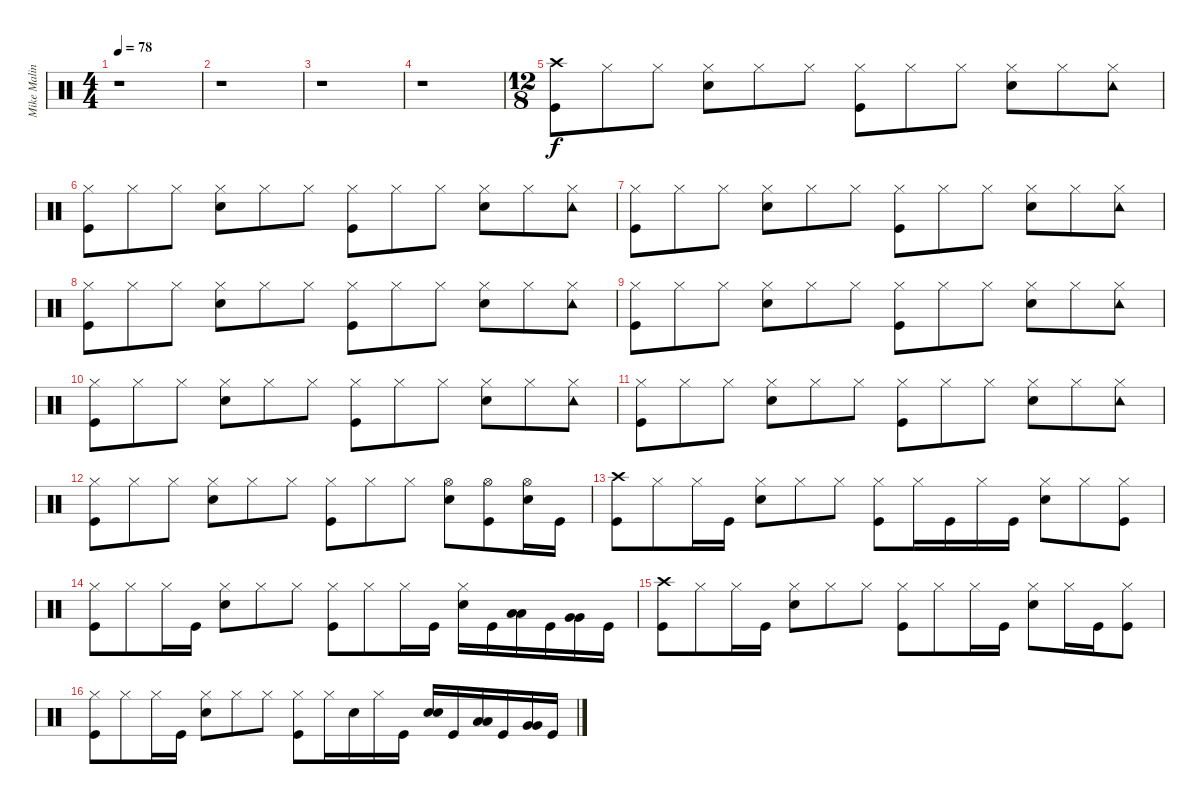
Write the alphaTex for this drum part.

\track ("Mike Malinin (Drums)" "Mike Malin") {instrument percussion}
\staff {score}
\articulation defaults
\ts (4 4)
\tempo 78
\clef neutral
\ks c
r.1{dy f} |
r.1 |
r.1 |
r.1 |
\ts (12 8)
("Crash high (hit)" "Kick (hit)").8 "Hi-Hat (closed)".8 "Hi-Hat (closed)".8 ("Hi-Hat (closed)" "Snare (hit) 2").8 "Hi-Hat (closed)".8 "Hi-Hat (closed)".8 ("Hi-Hat (closed)" "Kick (hit)").8 "Hi-Hat (closed)".8 "Hi-Hat (closed)".8 ("Hi-Hat (closed)" "Snare (hit) 2").8 "Hi-Hat (closed)".8 ("Tambourine (hit)" "Hi-Hat (closed)").8 |
("Hi-Hat (closed)" "Kick (hit)").8 "Hi-Hat (closed)".8 "Hi-Hat (closed)".8 ("Hi-Hat (closed)" "Snare (hit) 2").8 "Hi-Hat (closed)".8 "Hi-Hat (closed)".8 ("Hi-Hat (closed)" "Kick (hit)").8 "Hi-Hat (closed)".8 "Hi-Hat (closed)".8 ("Hi-Hat (closed)" "Snare (hit) 2").8 "Hi-Hat (closed)".8 ("Tambourine (hit)" "Hi-Hat (closed)").8 |
("Hi-Hat (closed)" "Kick (hit)").8 "Hi-Hat (closed)".8 "Hi-Hat (closed)".8 ("Hi-Hat (closed)" "Snare (hit) 2").8 "Hi-Hat (closed)".8 "Hi-Hat (closed)".8 ("Hi-Hat (closed)" "Kick (hit)").8 "Hi-Hat (closed)".8 "Hi-Hat (closed)".8 ("Hi-Hat (closed)" "Snare (hit) 2").8 "Hi-Hat (closed)".8 ("Tambourine (hit)" "Hi-Hat (closed)").8 |
("Hi-Hat (closed)" "Kick (hit)").8 "Hi-Hat (closed)".8 "Hi-Hat (closed)".8 ("Hi-Hat (closed)" "Snare (hit) 2").8 "Hi-Hat (closed)".8 "Hi-Hat (closed)".8 ("Hi-Hat (closed)" "Kick (hit)").8 "Hi-Hat (closed)".8 "Hi-Hat (closed)".8 ("Hi-Hat (closed)" "Snare (hit) 2").8 "Hi-Hat (closed)".8 ("Tambourine (hit)" "Hi-Hat (closed)").8 |
("Hi-Hat (closed)" "Kick (hit)").8 "Hi-Hat (closed)".8 "Hi-Hat (closed)".8 ("Hi-Hat (closed)" "Snare (hit) 2").8 "Hi-Hat (closed)".8 "Hi-Hat (closed)".8 ("Hi-Hat (closed)" "Kick (hit)").8 "Hi-Hat (closed)".8 "Hi-Hat (closed)".8 ("Hi-Hat (closed)" "Snare (hit) 2").8 "Hi-Hat (closed)".8 ("Tambourine (hit)" "Hi-Hat (closed)").8 |
("Hi-Hat (closed)" "Kick (hit)").8 "Hi-Hat (closed)".8 "Hi-Hat (closed)".8 ("Hi-Hat (closed)" "Snare (hit) 2").8 "Hi-Hat (closed)".8 "Hi-Hat (closed)".8 ("Hi-Hat (closed)" "Kick (hit)").8 "Hi-Hat (closed)".8 "Hi-Hat (closed)".8 ("Hi-Hat (closed)" "Snare (hit) 2").8 "Hi-Hat (closed)".8 ("Tambourine (hit)" "Hi-Hat (closed)").8 |
("Hi-Hat (closed)" "Kick (hit)").8 "Hi-Hat (closed)".8 "Hi-Hat (closed)".8 ("Hi-Hat (closed)" "Snare (hit) 2").8 "Hi-Hat (closed)".8 "Hi-Hat (closed)".8 ("Hi-Hat (closed)" "Kick (hit)").8 "Hi-Hat (closed)".8 "Hi-Hat (closed)".8 ("Hi-Hat (closed)" "Snare (hit) 2").8 "Hi-Hat (closed)".8 ("Tambourine (hit)" "Hi-Hat (closed)").8 |
("Hi-Hat (closed)" "Kick (hit)").8 "Hi-Hat (closed)".8 "Hi-Hat (closed)".8 ("Hi-Hat (closed)" "Snare (hit) 2").8 "Hi-Hat (closed)".8 "Hi-Hat (closed)".8 ("Hi-Hat (closed)" "Kick (hit)").8 "Hi-Hat (closed)".8 "Hi-Hat (closed)".8 ("Hi-Hat (open)" "Snare (hit) 2").8 ("Hi-Hat (open)" "Kick (hit)").8 ("Hi-Hat (open)" "Snare (hit) 2").16 "Kick (hit)".16 |
("Crash high (hit)" "Kick (hit)").8 "Hi-Hat (closed)".8 "Hi-Hat (closed)".16 "Kick (hit)".16 ("Hi-Hat (closed)" "Snare (hit) 2").8 "Hi-Hat (closed)".8 "Hi-Hat (closed)".8 ("Hi-Hat (closed)" "Kick (hit)").8 "Hi-Hat (closed)".16 "Kick (hit)".16 "Hi-Hat (closed)".16 "Kick (hit)".16 ("Hi-Hat (closed)" "Snare (hit) 2").8 "Hi-Hat (closed)".8 ("Hi-Hat (closed)" "Kick (hit)").8 |
("Hi-Hat (closed)" "Kick (hit)").8 "Hi-Hat (closed)".8 "Hi-Hat (closed)".16 "Kick (hit)".16 ("Hi-Hat (closed)" "Snare (hit) 2").8 "Hi-Hat (closed)".8 "Hi-Hat (closed)".8 ("Hi-Hat (closed)" "Kick (hit)").8 "Hi-Hat (closed)".8 "Hi-Hat (closed)".16 "Kick (hit)".16 ("Hi-Hat (closed)" "Snare (hit) 2").16 "Kick (hit)".16 ("Low Tom (hit)" "Low Tom (hit)").16 "Kick (hit)".16 ("Very Low Tom (hit)" "Very Low Tom (hit)").16 "Kick (hit)".16 |
("Crash high (hit)" "Kick (hit)").8 "Hi-Hat (closed)".8 "Hi-Hat (closed)".16 "Kick (hit)".16 ("Hi-Hat (closed)" "Snare (hit) 2").8 "Hi-Hat (closed)".8 "Hi-Hat (closed)".8 ("Hi-Hat (closed)" "Kick (hit)").8 "Hi-Hat (closed)".8 "Hi-Hat (closed)".16 "Kick (hit)".16 ("Hi-Hat (closed)" "Snare (hit) 2").8 "Hi-Hat (closed)".16 "Kick (hit)".16 ("Hi-Hat (closed)" "Kick (hit)").8 |
("Hi-Hat (closed)" "Kick (hit)").8 "Hi-Hat (closed)".8 "Hi-Hat (closed)".16 "Kick (hit)".16 ("Hi-Hat (closed)" "Snare (hit) 2").8 "Hi-Hat (closed)".8 "Hi-Hat (closed)".8 ("Hi-Hat (closed)" "Kick (hit)").8 "Hi-Hat (closed)".16 "Snare (hit) 2".16 "Hi-Hat (closed)".16 "Kick (hit)".16 ("Snare (hit) 2" "Snare (hit) 2").16 "Kick (hit)".16 ("Low Tom (hit)" "Low Tom (hit)").16 "Kick (hit)".16 ("Very Low Tom (hit)" "Very Low Tom (hit)").16 "Kick (hit)".16
